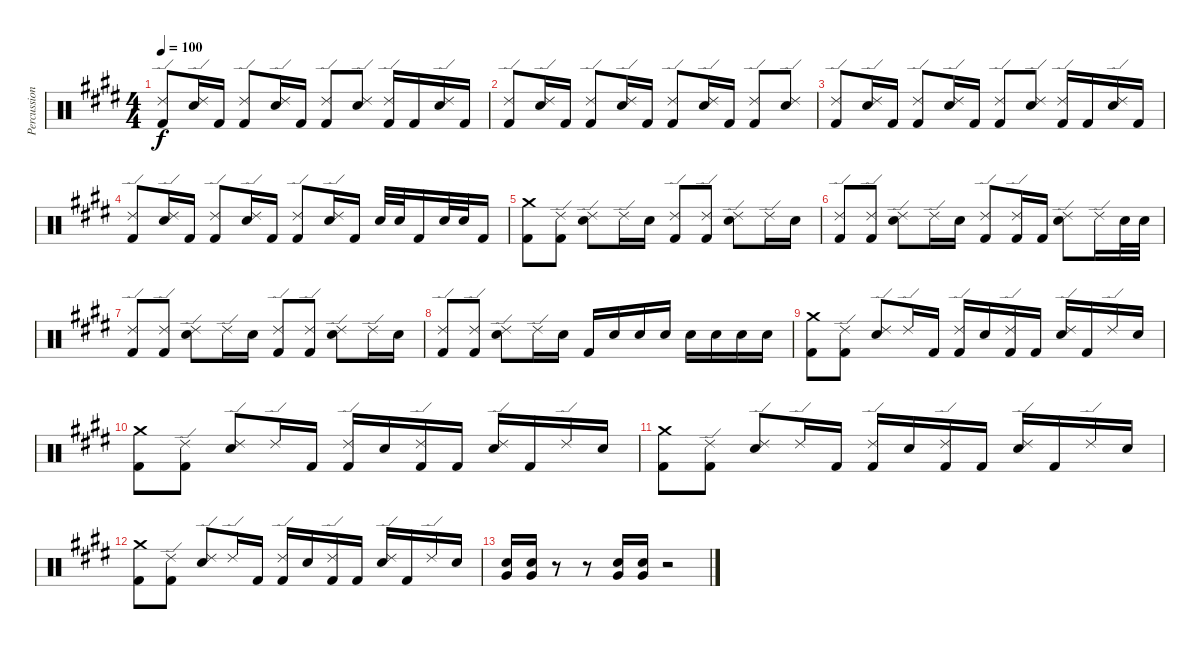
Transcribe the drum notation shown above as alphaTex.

\track ("Percussion" "Percussion") {instrument percussion}
\staff {score}
\articulation defaults
\ts (4 4)
\tempo 100
\clef neutral
\ks e
("Ride (edge) 2" "Kick (hit) 2").8{dy f} ("Ride (edge) 2" "Snare (hit) 2").16 "Kick (hit) 2".16 ("Ride (edge) 2" "Kick (hit) 2").8 ("Ride (edge) 2" "Snare (hit) 2").16 "Kick (hit) 2".16 ("Ride (edge) 2" "Kick (hit) 2").8 ("Ride (edge) 2" "Snare (hit) 2").8 ("Ride (edge) 2" "Kick (hit) 2").16 "Kick (hit) 2".16 ("Ride (edge) 2" "Snare (hit) 2").16 "Kick (hit) 2".16 |
("Ride (edge) 2" "Kick (hit) 2").8 ("Ride (edge) 2" "Snare (hit) 2").16 "Kick (hit) 2".16 ("Ride (edge) 2" "Kick (hit) 2").8 ("Ride (edge) 2" "Snare (hit) 2").16 "Kick (hit) 2".16 ("Ride (edge) 2" "Kick (hit) 2").8 ("Ride (edge) 2" "Snare (hit) 2").16 "Kick (hit) 2".16 ("Ride (edge) 2" "Kick (hit) 2").8 ("Ride (edge) 2" "Snare (hit) 2").8 |
("Ride (edge) 2" "Kick (hit) 2").8 ("Ride (edge) 2" "Snare (hit) 2").16 "Kick (hit) 2".16 ("Ride (edge) 2" "Kick (hit) 2").8 ("Ride (edge) 2" "Snare (hit) 2").16 "Kick (hit) 2".16 ("Ride (edge) 2" "Kick (hit) 2").8 ("Ride (edge) 2" "Snare (hit) 2").8 ("Ride (edge) 2" "Kick (hit) 2").16 "Kick (hit) 2".16 ("Ride (edge) 2" "Snare (hit) 2").16 "Kick (hit) 2".16 |
("Ride (edge) 2" "Kick (hit) 2").8 ("Ride (edge) 2" "Snare (hit) 2").16 "Kick (hit) 2".16 ("Ride (edge) 2" "Kick (hit) 2").8 ("Ride (edge) 2" "Snare (hit) 2").16 "Kick (hit) 2".16 ("Ride (edge) 2" "Kick (hit) 2").8 ("Ride (edge) 2" "Snare (hit) 2").16 "Kick (hit) 2".16 "Snare (hit) 2".32 "Snare (hit) 2".32 "Kick (hit) 2".16 "Snare (hit) 2".32 "Snare (hit) 2".32 "Kick (hit) 2".16 |
("Crash medium (hit)" "Kick (hit) 2").8 ("Ride (edge) 2" "Kick (hit) 2").8 ("Ride (edge) 2" "Snare (hit) 2").8 "Ride (edge) 2".16 "Snare (hit) 2".16 ("Ride (edge) 2" "Kick (hit) 2").8 ("Ride (edge) 2" "Kick (hit) 2").8 ("Ride (edge) 2" "Snare (hit) 2").8 "Ride (edge) 2".16 "Snare (hit) 2".16 |
("Ride (edge) 2" "Kick (hit) 2").8 ("Ride (edge) 2" "Kick (hit) 2").8 ("Ride (edge) 2" "Snare (hit) 2").8 "Ride (edge) 2".16 "Snare (hit) 2".16 ("Ride (edge) 2" "Kick (hit) 2").8 ("Ride (edge) 2" "Kick (hit) 2").16 "Kick (hit) 2".16 ("Ride (edge) 2" "Snare (hit) 2").8 "Ride (edge) 2".16 "Snare (hit) 2".32 "Snare (hit) 2".32 |
("Ride (edge) 2" "Kick (hit) 2").8 ("Ride (edge) 2" "Kick (hit) 2").8 ("Ride (edge) 2" "Snare (hit) 2").8 "Ride (edge) 2".16 "Snare (hit) 2".16 ("Ride (edge) 2" "Kick (hit) 2").8 ("Ride (edge) 2" "Kick (hit) 2").8 ("Ride (edge) 2" "Snare (hit) 2").8 "Ride (edge) 2".16 "Snare (hit) 2".16 |
("Ride (edge) 2" "Kick (hit) 2").8 ("Ride (edge) 2" "Kick (hit) 2").8 ("Ride (edge) 2" "Snare (hit) 2").8 "Ride (edge) 2".16 "Snare (hit) 2".16 "Kick (hit) 2".16 "Snare (hit) 2".16 "Snare (hit) 2".16 "Snare (hit) 2".16 "Snare (hit) 2".16 "Snare (hit) 2".16 "Snare (hit) 2".16 "Snare (hit) 2".16 |
("Crash medium (hit)" "Kick (hit) 2").8 ("Ride (edge) 2" "Kick (hit) 2").8 ("Ride (edge) 2" "Snare (hit) 2").8 "Ride (edge) 2".16 "Kick (hit) 2".16 ("Ride (edge) 2" "Kick (hit) 2").16 "Snare (hit) 2".16 ("Ride (edge) 2" "Kick (hit) 2").16 "Kick (hit) 2".16 ("Ride (edge) 2" "Snare (hit) 2").16 "Kick (hit) 2".16 "Ride (edge) 2".16 "Snare (hit) 2".16 |
("Crash medium (hit)" "Kick (hit) 2").8 ("Ride (edge) 2" "Kick (hit) 2").8 ("Ride (edge) 2" "Snare (hit) 2").8 "Ride (edge) 2".16 "Kick (hit) 2".16 ("Ride (edge) 2" "Kick (hit) 2").16 "Snare (hit) 2".16 ("Ride (edge) 2" "Kick (hit) 2").16 "Kick (hit) 2".16 ("Ride (edge) 2" "Snare (hit) 2").16 "Kick (hit) 2".16 "Ride (edge) 2".16 "Snare (hit) 2".16 |
("Crash medium (hit)" "Kick (hit) 2").8 ("Ride (edge) 2" "Kick (hit) 2").8 ("Ride (edge) 2" "Snare (hit) 2").8 "Ride (edge) 2".16 "Kick (hit) 2".16 ("Ride (edge) 2" "Kick (hit) 2").16 "Snare (hit) 2".16 ("Ride (edge) 2" "Kick (hit) 2").16 "Kick (hit) 2".16 ("Ride (edge) 2" "Snare (hit) 2").16 "Kick (hit) 2".16 "Ride (edge) 2".16 "Snare (hit) 2".16 |
("Crash medium (hit)" "Kick (hit) 2").8 ("Ride (edge) 2" "Kick (hit) 2").8 ("Ride (edge) 2" "Snare (hit) 2").8 "Ride (edge) 2".16 "Kick (hit) 2".16 ("Ride (edge) 2" "Kick (hit) 2").16 "Snare (hit) 2".16 ("Ride (edge) 2" "Kick (hit) 2").16 "Kick (hit) 2".16 ("Ride (edge) 2" "Snare (hit) 2").16 "Kick (hit) 2".16 "Ride (edge) 2".16 "Snare (hit) 2".16 |
("Snare (hit) 2" "Very Low Tom (hit)").16 ("Snare (hit) 2" "Very Low Tom (hit)").16 r.8 r.8 ("Snare (hit) 2" "Very Low Tom (hit)").16 ("Snare (hit) 2" "Very Low Tom (hit)").16 r.2
